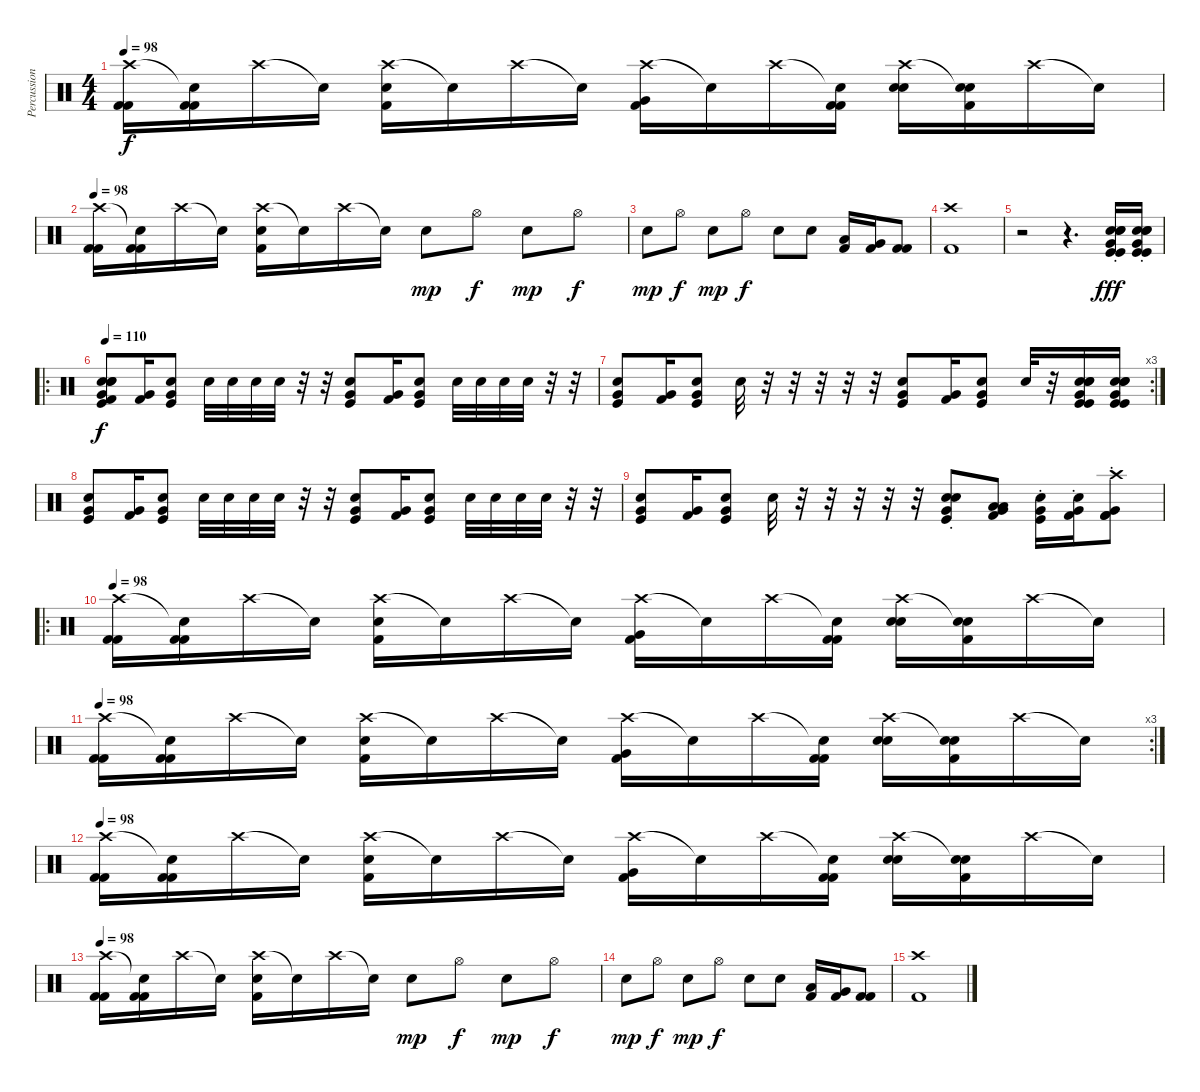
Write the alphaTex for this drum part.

\track ("Percussioni" "Percussion") {instrument percussion}
\staff {score}
\articulation defaults
\ts (4 4)
\tempo 98
\clef neutral
\ks c
("Crash high (hit)" "Kick (hit) 2" "Kick (hit) 2").16{dy f} ("Snare (hit)"{t} "Kick (hit) 2" "Kick (hit) 2").16 "Crash high (hit)".16 "Snare (hit)"{t}.16 ("Crash high (hit)" "Kick (hit) 2" "Electric Snare (hit)").16 "Snare (hit)"{t}.16 "Crash high (hit)".16 "Snare (hit)"{t}.16 ("Crash high (hit)" "Kick (hit) 2" "Very Low Tom (hit)").16 "Snare (hit)"{t}.16 "Crash high (hit)".16 ("Snare (hit)"{t} "Kick (hit) 2" "Kick (hit) 2").16 ("Crash high (hit)" "Electric Snare (hit)" "Electric Snare (hit)").16 ("Snare (hit)"{t} "Kick (hit) 2" "Electric Snare (hit)").16 "Crash high (hit)".16 "Snare (hit)"{t}.16 |
\tempo 98
("Crash high (hit)" "Kick (hit) 2" "Kick (hit) 2").16 ("Snare (hit)"{t} "Kick (hit) 2" "Kick (hit) 2").16 "Crash high (hit)".16 "Snare (hit)"{t}.16 ("Crash high (hit)" "Kick (hit) 2" "Electric Snare (hit)").16 "Snare (hit)"{t}.16 "Crash high (hit)".16 "Snare (hit)"{t}.16 "Electric Snare (hit)".8{dy mp} "Hi-Hat (open)".8{dy f} "Electric Snare (hit)".8{dy mp} "Hi-Hat (open)".8{dy f} |
"Electric Snare (hit)".8{dy mp} "Hi-Hat (open)".8{dy f} "Electric Snare (hit)".8{dy mp} "Hi-Hat (open)".8{dy f} "Electric Snare (hit)".8 "Electric Snare (hit)".8 ("Low Floor Tom (hit)" "Kick (hit) 2").16 ("Very Low Tom (hit)" "Kick (hit) 2").16 ("Kick (hit) 2" "Kick (hit) 2").8 |
("Kick (hit) 2" "Crash high (hit)").1 |
r.2 r.4{d} ("Very Low Tom (hit)"{st} "Electric Snare (hit)" "Snare (hit) 2" "Snare (hit) 2" "Kick (hit)" "Kick (hit)").16{dy fff} ("Very Low Tom (hit)"{st} "Electric Snare (hit)" "Snare (hit) 2" "Snare (hit) 2" "Kick (hit)" "Kick (hit)").16 |
\ro
\tempo 110
("Very Low Tom (hit)" "Electric Snare (hit)" "Snare (hit) 2" "Snare (hit) 2" "Kick (hit) 2" "Kick (hit)").8{dy f} ("Very Low Tom (hit)" "Kick (hit) 2").16 ("Electric Snare (hit)" "Very Low Tom (hit)" "Kick (hit)").8 "Electric Snare (hit)".32 "Electric Snare (hit)".32 "Electric Snare (hit)".32 "Electric Snare (hit)".32 r.32 r.32 ("Electric Snare (hit)" "Very Low Tom (hit)" "Kick (hit)").8 ("Very Low Tom (hit)" "Kick (hit) 2").16 ("Electric Snare (hit)" "Very Low Tom (hit)" "Kick (hit)").8 "Electric Snare (hit)".32 "Electric Snare (hit)".32 "Electric Snare (hit)".32 "Electric Snare (hit)".32 r.32 r.32 |
\rc 3
("Electric Snare (hit)" "Very Low Tom (hit)" "Kick (hit)").8 ("Very Low Tom (hit)" "Kick (hit) 2").16 ("Electric Snare (hit)" "Very Low Tom (hit)" "Kick (hit)").8 "Electric Snare (hit)".32 r.32 r.32 r.32 r.32 r.32 ("Electric Snare (hit)" "Very Low Tom (hit)" "Kick (hit)").8 ("Very Low Tom (hit)" "Kick (hit) 2").16 ("Electric Snare (hit)" "Very Low Tom (hit)" "Kick (hit)").8 "Electric Snare (hit)".32 r.32 ("Very Low Tom (hit)" "Electric Snare (hit)" "Snare (hit) 2" "Snare (hit) 2" "Kick (hit)" "Kick (hit)").16 ("Very Low Tom (hit)" "Electric Snare (hit)" "Snare (hit) 2" "Snare (hit) 2" "Kick (hit)" "Kick (hit)").16 |
("Electric Snare (hit)" "Very Low Tom (hit)" "Kick (hit)").8 ("Very Low Tom (hit)" "Kick (hit) 2").16 ("Electric Snare (hit)" "Very Low Tom (hit)" "Kick (hit)").8 "Electric Snare (hit)".32 "Electric Snare (hit)".32 "Electric Snare (hit)".32 "Electric Snare (hit)".32 r.32 r.32 ("Electric Snare (hit)" "Very Low Tom (hit)" "Kick (hit)").8 ("Very Low Tom (hit)" "Kick (hit) 2").16 ("Electric Snare (hit)" "Very Low Tom (hit)" "Kick (hit)").8 "Electric Snare (hit)".32 "Electric Snare (hit)".32 "Electric Snare (hit)".32 "Electric Snare (hit)".32 r.32 r.32 |
("Electric Snare (hit)" "Very Low Tom (hit)" "Kick (hit)").8 ("Very Low Tom (hit)" "Kick (hit) 2").16 ("Electric Snare (hit)" "Very Low Tom (hit)" "Kick (hit)").8 "Electric Snare (hit)".32 r.32 r.32 r.32 r.32 r.32 ("Electric Snare (hit)" "Electric Snare (hit)"{st} "Very Low Tom (hit)" "Kick (hit)").8 ("Low Floor Tom (hit)" "Low Floor Tom (hit)" "Very Low Tom (hit)" "Kick (hit) 2").8 ("Electric Snare (hit)"{st} "Very Low Tom (hit)" "Kick (hit)").16 ("Electric Snare (hit)"{st} "Very Low Tom (hit)" "Kick (hit) 2").16 ("Crash high (hit)" "Kick (hit) 2"{st} "Very Low Tom (hit)" "Kick (hit) 2").8 |
\ro
\tempo 98
("Crash high (hit)" "Kick (hit) 2" "Kick (hit) 2").16 ("Snare (hit)"{t} "Kick (hit) 2" "Kick (hit) 2").16 "Crash high (hit)".16 "Snare (hit)"{t}.16 ("Crash high (hit)" "Kick (hit) 2" "Electric Snare (hit)").16 "Snare (hit)"{t}.16 "Crash high (hit)".16 "Snare (hit)"{t}.16 ("Crash high (hit)" "Kick (hit) 2" "Very Low Tom (hit)").16 "Snare (hit)"{t}.16 "Crash high (hit)".16 ("Snare (hit)"{t} "Kick (hit) 2" "Kick (hit) 2").16 ("Crash high (hit)" "Electric Snare (hit)" "Electric Snare (hit)").16 ("Snare (hit)"{t} "Kick (hit) 2" "Electric Snare (hit)").16 "Crash high (hit)".16 "Snare (hit)"{t}.16 |
\rc 3
\tempo 98
("Crash high (hit)" "Kick (hit) 2" "Kick (hit) 2").16 ("Snare (hit)"{t} "Kick (hit) 2" "Kick (hit) 2").16 "Crash high (hit)".16 "Snare (hit)"{t}.16 ("Crash high (hit)" "Kick (hit) 2" "Electric Snare (hit)").16 "Snare (hit)"{t}.16 "Crash high (hit)".16 "Snare (hit)"{t}.16 ("Crash high (hit)" "Kick (hit) 2" "Very Low Tom (hit)").16 "Snare (hit)"{t}.16 "Crash high (hit)".16 ("Snare (hit)"{t} "Kick (hit) 2" "Kick (hit) 2").16 ("Crash high (hit)" "Electric Snare (hit)" "Electric Snare (hit)").16 ("Snare (hit)"{t} "Kick (hit) 2" "Electric Snare (hit)").16 "Crash high (hit)".16 "Snare (hit)"{t}.16 |
\tempo 98
("Crash high (hit)" "Kick (hit) 2" "Kick (hit) 2").16 ("Snare (hit)"{t} "Kick (hit) 2" "Kick (hit) 2").16 "Crash high (hit)".16 "Snare (hit)"{t}.16 ("Crash high (hit)" "Kick (hit) 2" "Electric Snare (hit)").16 "Snare (hit)"{t}.16 "Crash high (hit)".16 "Snare (hit)"{t}.16 ("Crash high (hit)" "Kick (hit) 2" "Very Low Tom (hit)").16 "Snare (hit)"{t}.16 "Crash high (hit)".16 ("Snare (hit)"{t} "Kick (hit) 2" "Kick (hit) 2").16 ("Crash high (hit)" "Electric Snare (hit)" "Electric Snare (hit)").16 ("Snare (hit)"{t} "Kick (hit) 2" "Electric Snare (hit)").16 "Crash high (hit)".16 "Snare (hit)"{t}.16 |
\tempo 98
("Crash high (hit)" "Kick (hit) 2" "Kick (hit) 2").16 ("Snare (hit)"{t} "Kick (hit) 2" "Kick (hit) 2").16 "Crash high (hit)".16 "Snare (hit)"{t}.16 ("Crash high (hit)" "Kick (hit) 2" "Electric Snare (hit)").16 "Snare (hit)"{t}.16 "Crash high (hit)".16 "Snare (hit)"{t}.16 "Electric Snare (hit)".8{dy mp} "Hi-Hat (open)".8{dy f} "Electric Snare (hit)".8{dy mp} "Hi-Hat (open)".8{dy f} |
"Electric Snare (hit)".8{dy mp} "Hi-Hat (open)".8{dy f} "Electric Snare (hit)".8{dy mp} "Hi-Hat (open)".8{dy f} "Electric Snare (hit)".8 "Electric Snare (hit)".8 ("Low Floor Tom (hit)" "Kick (hit) 2").16 ("Very Low Tom (hit)" "Kick (hit) 2").16 ("Kick (hit) 2" "Kick (hit) 2").8 |
("Kick (hit) 2" "Crash high (hit)").1
